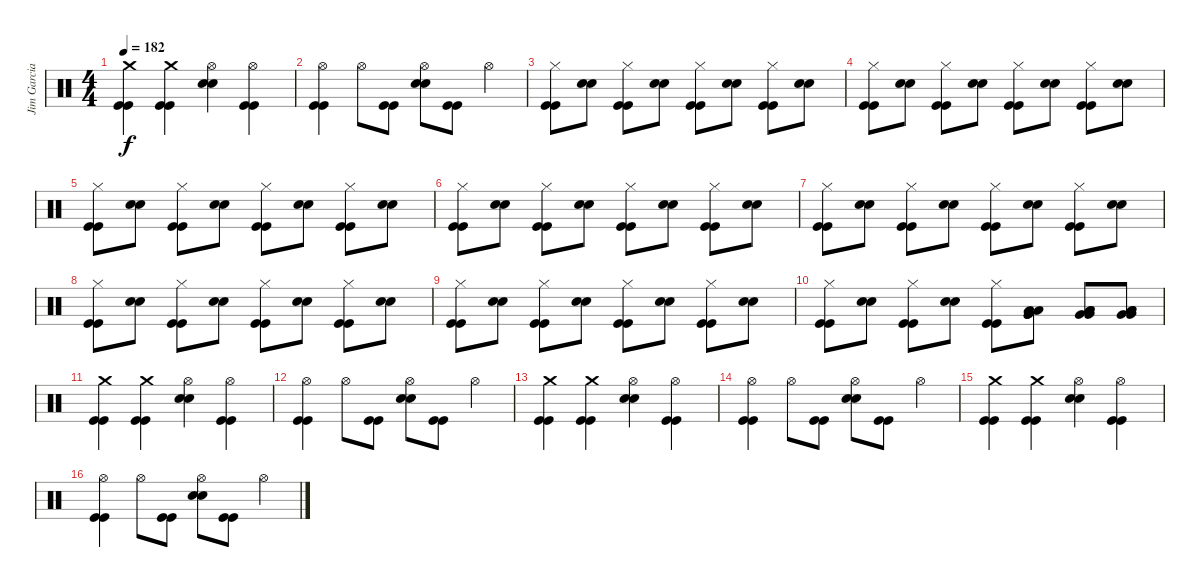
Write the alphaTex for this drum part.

\track ("Jim Garcia" "Jim Garcia") {instrument percussion}
\staff {score}
\articulation defaults
\ts (4 4)
\tempo 182
\clef neutral
\ks c
("Crash medium (hit)" "Kick (hit)" "Kick (hit)").4{dy f} ("Crash medium (hit)" "Kick (hit)" "Kick (hit)").4 ("Snare (hit) 2" "Snare (hit) 2" "Hi-Hat (open)").4 ("Hi-Hat (open)" "Kick (hit)" "Kick (hit)").4 |
("Hi-Hat (open)" "Kick (hit)" "Kick (hit)").4 "Hi-Hat (open)".8 ("Kick (hit)" "Kick (hit)").8 ("Snare (hit) 2" "Snare (hit) 2" "Hi-Hat (open)").8 ("Kick (hit)" "Kick (hit)").8 "Hi-Hat (open)".4 |
("Hi-Hat (closed)" "Kick (hit)" "Kick (hit)").8 ("Snare (hit) 2" "Snare (hit) 2").8 ("Hi-Hat (closed)" "Kick (hit)" "Kick (hit)").8 ("Snare (hit) 2" "Snare (hit) 2").8 ("Hi-Hat (closed)" "Kick (hit)" "Kick (hit)").8 ("Snare (hit) 2" "Snare (hit) 2").8 ("Hi-Hat (closed)" "Kick (hit)" "Kick (hit)").8 ("Snare (hit) 2" "Snare (hit) 2").8 |
("Hi-Hat (closed)" "Kick (hit)" "Kick (hit)").8 ("Snare (hit) 2" "Snare (hit) 2").8 ("Hi-Hat (closed)" "Kick (hit)" "Kick (hit)").8 ("Snare (hit) 2" "Snare (hit) 2").8 ("Hi-Hat (closed)" "Kick (hit)" "Kick (hit)").8 ("Snare (hit) 2" "Snare (hit) 2").8 ("Hi-Hat (closed)" "Kick (hit)" "Kick (hit)").8 ("Snare (hit) 2" "Snare (hit) 2").8 |
("Hi-Hat (closed)" "Kick (hit)" "Kick (hit)").8 ("Snare (hit) 2" "Snare (hit) 2").8 ("Hi-Hat (closed)" "Kick (hit)" "Kick (hit)").8 ("Snare (hit) 2" "Snare (hit) 2").8 ("Hi-Hat (closed)" "Kick (hit)" "Kick (hit)").8 ("Snare (hit) 2" "Snare (hit) 2").8 ("Hi-Hat (closed)" "Kick (hit)" "Kick (hit)").8 ("Snare (hit) 2" "Snare (hit) 2").8 |
("Hi-Hat (closed)" "Kick (hit)" "Kick (hit)").8 ("Snare (hit) 2" "Snare (hit) 2").8 ("Hi-Hat (closed)" "Kick (hit)" "Kick (hit)").8 ("Snare (hit) 2" "Snare (hit) 2").8 ("Hi-Hat (closed)" "Kick (hit)" "Kick (hit)").8 ("Snare (hit) 2" "Snare (hit) 2").8 ("Hi-Hat (closed)" "Kick (hit)" "Kick (hit)").8 ("Snare (hit) 2" "Snare (hit) 2").8 |
("Hi-Hat (closed)" "Kick (hit)" "Kick (hit)").8 ("Snare (hit) 2" "Snare (hit) 2").8 ("Hi-Hat (closed)" "Kick (hit)" "Kick (hit)").8 ("Snare (hit) 2" "Snare (hit) 2").8 ("Hi-Hat (closed)" "Kick (hit)" "Kick (hit)").8 ("Snare (hit) 2" "Snare (hit) 2").8 ("Hi-Hat (closed)" "Kick (hit)" "Kick (hit)").8 ("Snare (hit) 2" "Snare (hit) 2").8 |
("Hi-Hat (closed)" "Kick (hit)" "Kick (hit)").8 ("Snare (hit) 2" "Snare (hit) 2").8 ("Hi-Hat (closed)" "Kick (hit)" "Kick (hit)").8 ("Snare (hit) 2" "Snare (hit) 2").8 ("Hi-Hat (closed)" "Kick (hit)" "Kick (hit)").8 ("Snare (hit) 2" "Snare (hit) 2").8 ("Hi-Hat (closed)" "Kick (hit)" "Kick (hit)").8 ("Snare (hit) 2" "Snare (hit) 2").8 |
("Hi-Hat (closed)" "Kick (hit)" "Kick (hit)").8 ("Snare (hit) 2" "Snare (hit) 2").8 ("Hi-Hat (closed)" "Kick (hit)" "Kick (hit)").8 ("Snare (hit) 2" "Snare (hit) 2").8 ("Hi-Hat (closed)" "Kick (hit)" "Kick (hit)").8 ("Snare (hit) 2" "Snare (hit) 2").8 ("Hi-Hat (closed)" "Kick (hit)" "Kick (hit)").8 ("Snare (hit) 2" "Snare (hit) 2").8 |
("Hi-Hat (closed)" "Kick (hit)" "Kick (hit)").8 ("Snare (hit) 2" "Snare (hit) 2").8 ("Hi-Hat (closed)" "Kick (hit)" "Kick (hit)").8 ("Snare (hit) 2" "Snare (hit) 2").8 ("Hi-Hat (closed)" "Kick (hit)" "Kick (hit)").8 ("Very Low Tom (hit)" "Very Low Tom (hit)" "Low Floor Tom (hit)" "Low Floor Tom (hit)").8 ("Very Low Tom (hit)" "Very Low Tom (hit)" "Low Floor Tom (hit)" "Low Floor Tom (hit)").8 ("Very Low Tom (hit)" "Very Low Tom (hit)" "Low Floor Tom (hit)" "Low Floor Tom (hit)").8 |
("Crash medium (hit)" "Kick (hit)" "Kick (hit)").4 ("Crash medium (hit)" "Kick (hit)" "Kick (hit)").4 ("Snare (hit) 2" "Snare (hit) 2" "Hi-Hat (open)").4 ("Hi-Hat (open)" "Kick (hit)" "Kick (hit)").4 |
("Hi-Hat (open)" "Kick (hit)" "Kick (hit)").4 "Hi-Hat (open)".8 ("Kick (hit)" "Kick (hit)").8 ("Snare (hit) 2" "Snare (hit) 2" "Hi-Hat (open)").8 ("Kick (hit)" "Kick (hit)").8 "Hi-Hat (open)".4 |
("Crash medium (hit)" "Kick (hit)" "Kick (hit)").4 ("Crash medium (hit)" "Kick (hit)" "Kick (hit)").4 ("Snare (hit) 2" "Snare (hit) 2" "Hi-Hat (open)").4 ("Hi-Hat (open)" "Kick (hit)" "Kick (hit)").4 |
("Hi-Hat (open)" "Kick (hit)" "Kick (hit)").4 "Hi-Hat (open)".8 ("Kick (hit)" "Kick (hit)").8 ("Snare (hit) 2" "Snare (hit) 2" "Hi-Hat (open)").8 ("Kick (hit)" "Kick (hit)").8 "Hi-Hat (open)".4 |
("Crash medium (hit)" "Kick (hit)" "Kick (hit)").4 ("Crash medium (hit)" "Kick (hit)" "Kick (hit)").4 ("Snare (hit) 2" "Snare (hit) 2" "Hi-Hat (open)").4 ("Hi-Hat (open)" "Kick (hit)" "Kick (hit)").4 |
("Hi-Hat (open)" "Kick (hit)" "Kick (hit)").4 "Hi-Hat (open)".8 ("Kick (hit)" "Kick (hit)").8 ("Snare (hit) 2" "Snare (hit) 2" "Hi-Hat (open)").8 ("Kick (hit)" "Kick (hit)").8 "Hi-Hat (open)".4
